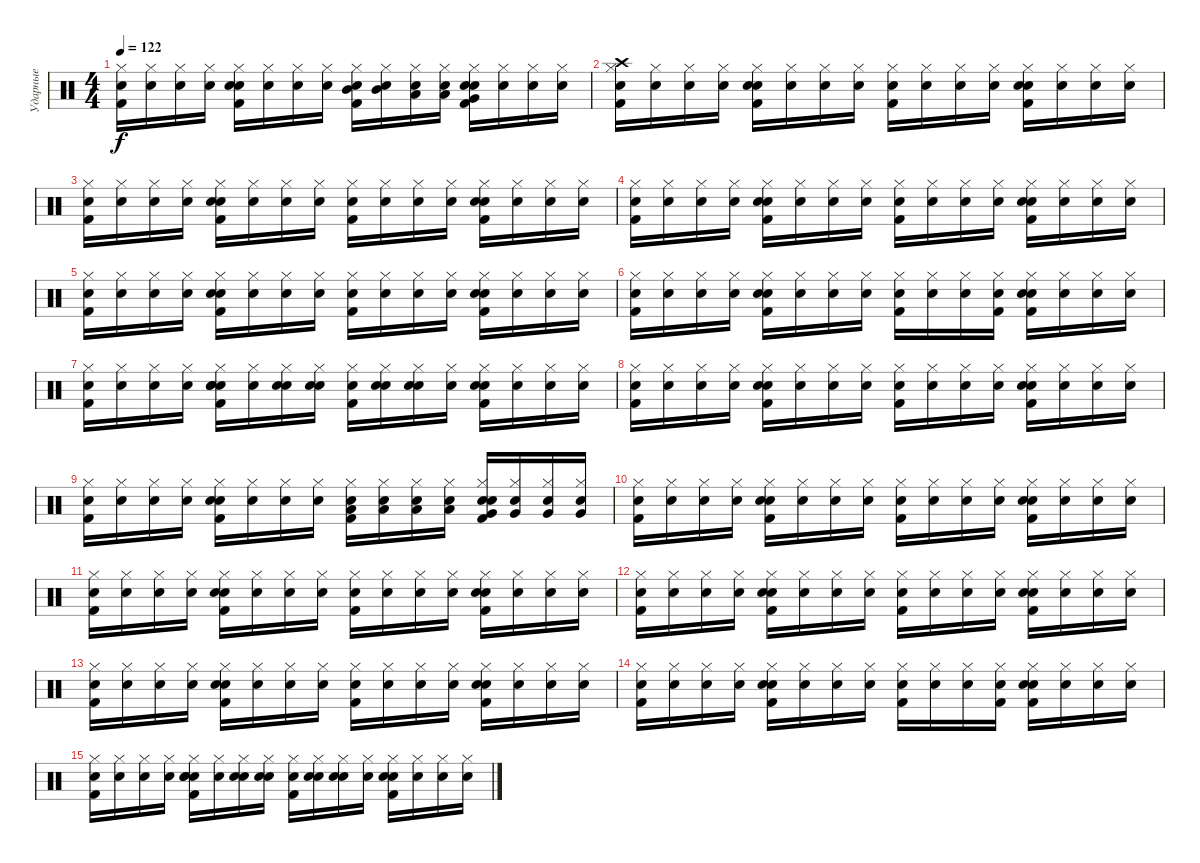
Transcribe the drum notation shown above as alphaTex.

\track ("Ударные" "Ударные") {instrument percussion}
\staff {score}
\articulation defaults
\ts (4 4)
\tempo 122
\clef neutral
\ks c
("Snare (hit)" "Kick (hit) 2" "Hi-Hat (closed)").16{dy f} ("Snare (hit)" "Hi-Hat (closed)").16 ("Snare (hit)" "Hi-Hat (closed)").16 ("Snare (hit)" "Hi-Hat (closed)").16 ("Snare (hit)" "Kick (hit) 2" "Snare (hit) 2" "Hi-Hat (closed)").16 ("Snare (hit)" "Hi-Hat (closed)").16 ("Snare (hit)" "Hi-Hat (closed)").16 ("Snare (hit)" "Hi-Hat (closed)").16 ("Snare (hit)" "Mid Tom (hit)" "Kick (hit) 2" "Hi-Hat (closed)").16 ("Snare (hit)" "Mid Tom (hit)" "Hi-Hat (closed)").16 ("Snare (hit)" "Low Tom (hit)" "Hi-Hat (closed)").16 ("Snare (hit)" "Low Tom (hit)" "Hi-Hat (closed)").16 ("Snare (hit)" "Very Low Tom (hit)" "Kick (hit) 2" "Snare (hit) 2" "Hi-Hat (closed)").16 ("Snare (hit)" "Hi-Hat (closed)").16 ("Snare (hit)" "Hi-Hat (closed)").16 ("Snare (hit)" "Hi-Hat (closed)").16 |
("Snare (hit)" "Crash high (hit)" "Kick (hit) 2" "Hi-Hat (closed)").16 ("Snare (hit)" "Hi-Hat (closed)").16 ("Snare (hit)" "Hi-Hat (closed)").16 ("Snare (hit)" "Hi-Hat (closed)").16 ("Snare (hit)" "Kick (hit) 2" "Snare (hit) 2" "Hi-Hat (closed)").16 ("Snare (hit)" "Hi-Hat (closed)").16 ("Snare (hit)" "Hi-Hat (closed)").16 ("Snare (hit)" "Hi-Hat (closed)").16 ("Snare (hit)" "Kick (hit) 2" "Hi-Hat (closed)").16 ("Snare (hit)" "Hi-Hat (closed)").16 ("Snare (hit)" "Hi-Hat (closed)").16 ("Snare (hit)" "Hi-Hat (closed)").16 ("Snare (hit)" "Kick (hit) 2" "Snare (hit) 2" "Hi-Hat (closed)").16 ("Snare (hit)" "Hi-Hat (closed)").16 ("Snare (hit)" "Hi-Hat (closed)").16 ("Snare (hit)" "Hi-Hat (closed)").16 |
("Snare (hit)" "Kick (hit) 2" "Hi-Hat (closed)").16 ("Snare (hit)" "Hi-Hat (closed)").16 ("Snare (hit)" "Hi-Hat (closed)").16 ("Snare (hit)" "Hi-Hat (closed)").16 ("Snare (hit)" "Kick (hit) 2" "Snare (hit) 2" "Hi-Hat (closed)").16 ("Snare (hit)" "Hi-Hat (closed)").16 ("Snare (hit)" "Hi-Hat (closed)").16 ("Snare (hit)" "Hi-Hat (closed)").16 ("Snare (hit)" "Kick (hit) 2" "Hi-Hat (closed)").16 ("Snare (hit)" "Hi-Hat (closed)").16 ("Snare (hit)" "Hi-Hat (closed)").16 ("Snare (hit)" "Hi-Hat (closed)").16 ("Snare (hit)" "Kick (hit) 2" "Snare (hit) 2" "Hi-Hat (closed)").16 ("Snare (hit)" "Hi-Hat (closed)").16 ("Snare (hit)" "Hi-Hat (closed)").16 ("Snare (hit)" "Hi-Hat (closed)").16 |
("Snare (hit)" "Kick (hit) 2" "Hi-Hat (closed)").16 ("Snare (hit)" "Hi-Hat (closed)").16 ("Snare (hit)" "Hi-Hat (closed)").16 ("Snare (hit)" "Hi-Hat (closed)").16 ("Snare (hit)" "Kick (hit) 2" "Snare (hit) 2" "Hi-Hat (closed)").16 ("Snare (hit)" "Hi-Hat (closed)").16 ("Snare (hit)" "Hi-Hat (closed)").16 ("Snare (hit)" "Hi-Hat (closed)").16 ("Snare (hit)" "Kick (hit) 2" "Hi-Hat (closed)").16 ("Snare (hit)" "Hi-Hat (closed)").16 ("Snare (hit)" "Hi-Hat (closed)").16 ("Snare (hit)" "Hi-Hat (closed)").16 ("Snare (hit)" "Kick (hit) 2" "Snare (hit) 2" "Hi-Hat (closed)").16 ("Snare (hit)" "Hi-Hat (closed)").16 ("Snare (hit)" "Hi-Hat (closed)").16 ("Snare (hit)" "Hi-Hat (closed)").16 |
("Snare (hit)" "Kick (hit) 2" "Hi-Hat (closed)").16 ("Snare (hit)" "Hi-Hat (closed)").16 ("Snare (hit)" "Hi-Hat (closed)").16 ("Snare (hit)" "Hi-Hat (closed)").16 ("Snare (hit)" "Kick (hit) 2" "Snare (hit) 2" "Hi-Hat (closed)").16 ("Snare (hit)" "Hi-Hat (closed)").16 ("Snare (hit)" "Hi-Hat (closed)").16 ("Snare (hit)" "Hi-Hat (closed)").16 ("Snare (hit)" "Kick (hit) 2" "Hi-Hat (closed)").16 ("Snare (hit)" "Hi-Hat (closed)").16 ("Snare (hit)" "Hi-Hat (closed)").16 ("Snare (hit)" "Hi-Hat (closed)").16 ("Snare (hit)" "Kick (hit) 2" "Snare (hit) 2" "Hi-Hat (closed)").16 ("Snare (hit)" "Hi-Hat (closed)").16 ("Snare (hit)" "Hi-Hat (closed)").16 ("Snare (hit)" "Hi-Hat (closed)").16 |
("Snare (hit)" "Kick (hit) 2" "Hi-Hat (closed)").16 ("Snare (hit)" "Hi-Hat (closed)").16 ("Snare (hit)" "Hi-Hat (closed)").16 ("Snare (hit)" "Hi-Hat (closed)").16 ("Snare (hit)" "Kick (hit) 2" "Snare (hit) 2" "Hi-Hat (closed)").16 ("Snare (hit)" "Hi-Hat (closed)").16 ("Snare (hit)" "Hi-Hat (closed)").16 ("Snare (hit)" "Hi-Hat (closed)").16 ("Snare (hit)" "Kick (hit) 2" "Hi-Hat (closed)").16 ("Snare (hit)" "Hi-Hat (closed)").16 ("Snare (hit)" "Hi-Hat (closed)").16 ("Snare (hit)" "Kick (hit) 2" "Hi-Hat (closed)").16 ("Snare (hit)" "Kick (hit) 2" "Snare (hit) 2" "Hi-Hat (closed)").16 ("Snare (hit)" "Hi-Hat (closed)").16 ("Snare (hit)" "Hi-Hat (closed)").16 ("Snare (hit)" "Hi-Hat (closed)").16 |
("Snare (hit)" "Kick (hit) 2" "Hi-Hat (closed)").16 ("Snare (hit)" "Hi-Hat (closed)").16 ("Snare (hit)" "Hi-Hat (closed)").16 ("Snare (hit)" "Hi-Hat (closed)").16 ("Snare (hit)" "Hand Clap (hit)" "Kick (hit) 2" "Snare (hit) 2" "Hi-Hat (closed)").16 ("Snare (hit)" "Hi-Hat (closed)").16 ("Snare (hit)" "Hand Clap (hit)" "Hi-Hat (closed)").16 ("Snare (hit)" "Hand Clap (hit)" "Hi-Hat (closed)").16 ("Snare (hit)" "Kick (hit) 2" "Hi-Hat (closed)").16 ("Snare (hit)" "Hand Clap (hit)" "Hi-Hat (closed)").16 ("Snare (hit)" "Hand Clap (hit)" "Hi-Hat (closed)").16 ("Snare (hit)" "Hi-Hat (closed)").16 ("Snare (hit)" "Kick (hit) 2" "Snare (hit) 2" "Hi-Hat (closed)").16 ("Snare (hit)" "Hi-Hat (closed)").16 ("Snare (hit)" "Hi-Hat (closed)").16 ("Snare (hit)" "Hi-Hat (closed)").16 |
("Snare (hit)" "Kick (hit) 2" "Hi-Hat (closed)").16 ("Snare (hit)" "Hi-Hat (closed)").16 ("Snare (hit)" "Hi-Hat (closed)").16 ("Snare (hit)" "Hi-Hat (closed)").16 ("Snare (hit)" "Kick (hit) 2" "Snare (hit) 2" "Hi-Hat (closed)").16 ("Snare (hit)" "Hi-Hat (closed)").16 ("Snare (hit)" "Hi-Hat (closed)").16 ("Snare (hit)" "Hi-Hat (closed)").16 ("Snare (hit)" "Kick (hit) 2" "Hi-Hat (closed)").16 ("Snare (hit)" "Hi-Hat (closed)").16 ("Snare (hit)" "Hi-Hat (closed)").16 ("Snare (hit)" "Hi-Hat (closed)").16 ("Snare (hit)" "Kick (hit) 2" "Snare (hit) 2" "Hi-Hat (closed)").16 ("Snare (hit)" "Hi-Hat (closed)").16 ("Snare (hit)" "Hi-Hat (closed)").16 ("Snare (hit)" "Hi-Hat (closed)").16 |
("Snare (hit)" "Kick (hit) 2" "Hi-Hat (closed)").16 ("Snare (hit)" "Hi-Hat (closed)").16 ("Snare (hit)" "Hi-Hat (closed)").16 ("Snare (hit)" "Hi-Hat (closed)").16 ("Snare (hit)" "Kick (hit) 2" "Snare (hit) 2" "Hi-Hat (closed)").16 ("Snare (hit)" "Hi-Hat (closed)").16 ("Snare (hit)" "Hi-Hat (closed)").16 ("Snare (hit)" "Hi-Hat (closed)").16 ("Snare (hit)" "Low Tom (hit)" "Kick (hit) 2" "Hi-Hat (closed)").16 ("Snare (hit)" "Low Tom (hit)" "Hi-Hat (closed)").16 ("Snare (hit)" "Low Tom (hit)" "Hi-Hat (closed)").16 ("Snare (hit)" "Low Tom (hit)" "Hi-Hat (closed)").16 ("Snare (hit)" "Very Low Tom (hit)" "Kick (hit) 2" "Snare (hit) 2" "Hi-Hat (closed)").16 ("Snare (hit)" "Very Low Tom (hit)" "Hi-Hat (closed)").16 ("Snare (hit)" "Very Low Tom (hit)" "Hi-Hat (closed)").16 ("Snare (hit)" "Very Low Tom (hit)" "Hi-Hat (closed)").16 |
("Snare (hit)" "Kick (hit) 2" "Hi-Hat (closed)").16 ("Snare (hit)" "Hi-Hat (closed)").16 ("Snare (hit)" "Hi-Hat (closed)").16 ("Snare (hit)" "Hi-Hat (closed)").16 ("Snare (hit)" "Kick (hit) 2" "Snare (hit) 2" "Hi-Hat (closed)").16 ("Snare (hit)" "Hi-Hat (closed)").16 ("Snare (hit)" "Hi-Hat (closed)").16 ("Snare (hit)" "Hi-Hat (closed)").16 ("Snare (hit)" "Kick (hit) 2" "Hi-Hat (closed)").16 ("Snare (hit)" "Hi-Hat (closed)").16 ("Snare (hit)" "Hi-Hat (closed)").16 ("Snare (hit)" "Hi-Hat (closed)").16 ("Snare (hit)" "Kick (hit) 2" "Snare (hit) 2" "Hi-Hat (closed)").16 ("Snare (hit)" "Hi-Hat (closed)").16 ("Snare (hit)" "Hi-Hat (closed)").16 ("Snare (hit)" "Hi-Hat (closed)").16 |
("Snare (hit)" "Kick (hit) 2" "Hi-Hat (closed)").16 ("Snare (hit)" "Hi-Hat (closed)").16 ("Snare (hit)" "Hi-Hat (closed)").16 ("Snare (hit)" "Hi-Hat (closed)").16 ("Snare (hit)" "Kick (hit) 2" "Snare (hit) 2" "Hi-Hat (closed)").16 ("Snare (hit)" "Hi-Hat (closed)").16 ("Snare (hit)" "Hi-Hat (closed)").16 ("Snare (hit)" "Hi-Hat (closed)").16 ("Snare (hit)" "Kick (hit) 2" "Hi-Hat (closed)").16 ("Snare (hit)" "Hi-Hat (closed)").16 ("Snare (hit)" "Hi-Hat (closed)").16 ("Snare (hit)" "Hi-Hat (closed)").16 ("Snare (hit)" "Kick (hit) 2" "Snare (hit) 2" "Hi-Hat (closed)").16 ("Snare (hit)" "Hi-Hat (closed)").16 ("Snare (hit)" "Hi-Hat (closed)").16 ("Snare (hit)" "Hi-Hat (closed)").16 |
("Snare (hit)" "Kick (hit) 2" "Hi-Hat (closed)").16 ("Snare (hit)" "Hi-Hat (closed)").16 ("Snare (hit)" "Hi-Hat (closed)").16 ("Snare (hit)" "Hi-Hat (closed)").16 ("Snare (hit)" "Kick (hit) 2" "Snare (hit) 2" "Hi-Hat (closed)").16 ("Snare (hit)" "Hi-Hat (closed)").16 ("Snare (hit)" "Hi-Hat (closed)").16 ("Snare (hit)" "Hi-Hat (closed)").16 ("Snare (hit)" "Kick (hit) 2" "Hi-Hat (closed)").16 ("Snare (hit)" "Hi-Hat (closed)").16 ("Snare (hit)" "Hi-Hat (closed)").16 ("Snare (hit)" "Hi-Hat (closed)").16 ("Snare (hit)" "Kick (hit) 2" "Snare (hit) 2" "Hi-Hat (closed)").16 ("Snare (hit)" "Hi-Hat (closed)").16 ("Snare (hit)" "Hi-Hat (closed)").16 ("Snare (hit)" "Hi-Hat (closed)").16 |
("Snare (hit)" "Kick (hit) 2" "Hi-Hat (closed)").16 ("Snare (hit)" "Hi-Hat (closed)").16 ("Snare (hit)" "Hi-Hat (closed)").16 ("Snare (hit)" "Hi-Hat (closed)").16 ("Snare (hit)" "Kick (hit) 2" "Snare (hit) 2" "Hi-Hat (closed)").16 ("Snare (hit)" "Hi-Hat (closed)").16 ("Snare (hit)" "Hi-Hat (closed)").16 ("Snare (hit)" "Hi-Hat (closed)").16 ("Snare (hit)" "Kick (hit) 2" "Hi-Hat (closed)").16 ("Snare (hit)" "Hi-Hat (closed)").16 ("Snare (hit)" "Hi-Hat (closed)").16 ("Snare (hit)" "Hi-Hat (closed)").16 ("Snare (hit)" "Kick (hit) 2" "Snare (hit) 2" "Hi-Hat (closed)").16 ("Snare (hit)" "Hi-Hat (closed)").16 ("Snare (hit)" "Hi-Hat (closed)").16 ("Snare (hit)" "Hi-Hat (closed)").16 |
("Snare (hit)" "Kick (hit) 2" "Hi-Hat (closed)").16 ("Snare (hit)" "Hi-Hat (closed)").16 ("Snare (hit)" "Hi-Hat (closed)").16 ("Snare (hit)" "Hi-Hat (closed)").16 ("Snare (hit)" "Kick (hit) 2" "Snare (hit) 2" "Hi-Hat (closed)").16 ("Snare (hit)" "Hi-Hat (closed)").16 ("Snare (hit)" "Hi-Hat (closed)").16 ("Snare (hit)" "Hi-Hat (closed)").16 ("Snare (hit)" "Kick (hit) 2" "Hi-Hat (closed)").16 ("Snare (hit)" "Hi-Hat (closed)").16 ("Snare (hit)" "Hi-Hat (closed)").16 ("Snare (hit)" "Kick (hit) 2" "Hi-Hat (closed)").16 ("Snare (hit)" "Kick (hit) 2" "Snare (hit) 2" "Hi-Hat (closed)").16 ("Snare (hit)" "Hi-Hat (closed)").16 ("Snare (hit)" "Hi-Hat (closed)").16 ("Snare (hit)" "Hi-Hat (closed)").16 |
("Snare (hit)" "Kick (hit) 2" "Hi-Hat (closed)").16 ("Snare (hit)" "Hi-Hat (closed)").16 ("Snare (hit)" "Hi-Hat (closed)").16 ("Snare (hit)" "Hi-Hat (closed)").16 ("Snare (hit)" "Hand Clap (hit)" "Kick (hit) 2" "Snare (hit) 2" "Hi-Hat (closed)").16 ("Snare (hit)" "Hi-Hat (closed)").16 ("Snare (hit)" "Hand Clap (hit)" "Hi-Hat (closed)").16 ("Snare (hit)" "Hand Clap (hit)" "Hi-Hat (closed)").16 ("Snare (hit)" "Kick (hit) 2" "Hi-Hat (closed)").16 ("Snare (hit)" "Hand Clap (hit)" "Hi-Hat (closed)").16 ("Snare (hit)" "Hand Clap (hit)" "Hi-Hat (closed)").16 ("Snare (hit)" "Hi-Hat (closed)").16 ("Snare (hit)" "Kick (hit) 2" "Snare (hit) 2" "Hi-Hat (closed)").16 ("Snare (hit)" "Hi-Hat (closed)").16 ("Snare (hit)" "Hi-Hat (closed)").16 ("Snare (hit)" "Hi-Hat (closed)").16
